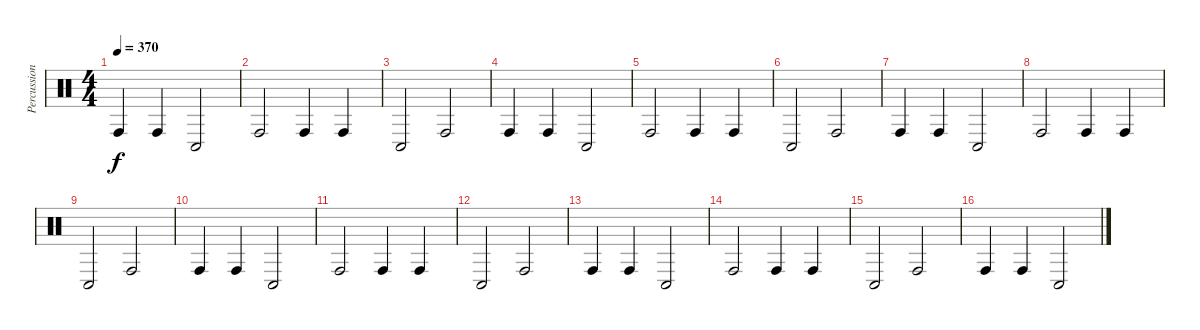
\track ("Percussions" "Percussion") {instrument percussion}
\staff {score}
\articulation defaults
\ts (4 4)
\tempo 370
\clef neutral
\ks c "Conga high (hit)".4{dy f} "Conga high (hit)".4 "Conga low (hit)".2
|
"Conga high (hit)".2 "Conga high (hit)".4 "Conga high (hit)".4 |
"Conga low (hit)".2 "Conga high (hit)".2 |
"Conga high (hit)".4 "Conga high (hit)".4 "Conga low (hit)".2 |
"Conga high (hit)".2 "Conga high (hit)".4 "Conga high (hit)".4 |
"Conga low (hit)".2 "Conga high (hit)".2 |
"Conga high (hit)".4 "Conga high (hit)".4 "Conga low (hit)".2 |
"Conga high (hit)".2 "Conga high (hit)".4 "Conga high (hit)".4 |
"Conga low (hit)".2 "Conga high (hit)".2 |
"Conga high (hit)".4 "Conga high (hit)".4 "Conga low (hit)".2 |
"Conga high (hit)".2 "Conga high (hit)".4 "Conga high (hit)".4 |
"Conga low (hit)".2 "Conga high (hit)".2 |
"Conga high (hit)".4 "Conga high (hit)".4 "Conga low (hit)".2 |
"Conga high (hit)".2 "Conga high (hit)".4 "Conga high (hit)".4 |
"Conga low (hit)".2 "Conga high (hit)".2 |
"Conga high (hit)".4 "Conga high (hit)".4 "Conga low (hit)".2
